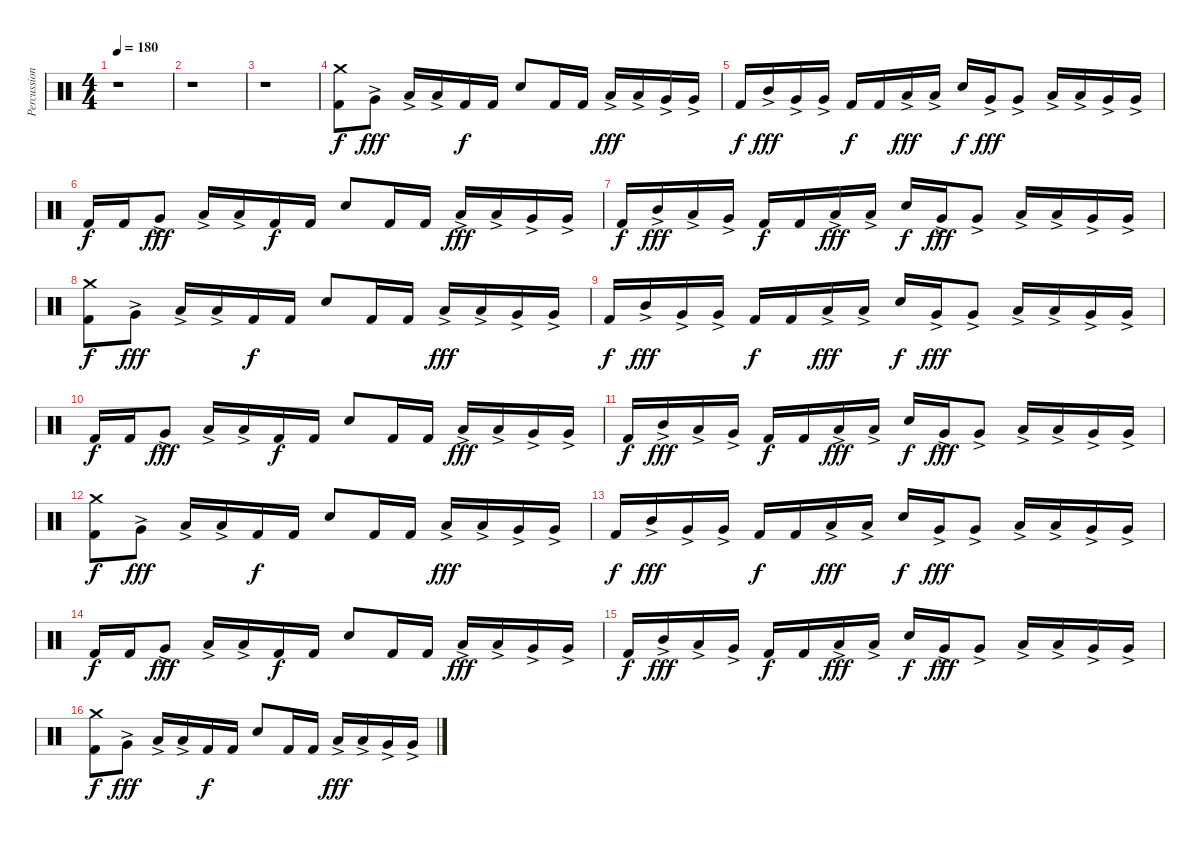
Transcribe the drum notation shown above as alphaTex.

\track ("Percussion" "Percussion") {instrument percussion}
\staff {score}
\articulation defaults
\ts (4 4)
\tempo 180
\clef neutral
\ks c
r.1{dy f} |
r.1 |
r.1 |
("Crash medium (hit)" "Kick (hit) 2").8{volume 16} "Very Low Tom (hit)"{ac}.8{dy fff} "Low Tom (hit)"{ac}.16 "Low Tom (hit)"{ac}.16 "Kick (hit) 2".16{dy f} "Kick (hit) 2".16 "Snare (hit) 2".8 "Kick (hit) 2".16 "Kick (hit) 2".16 "Low Tom (hit)"{ac}.16{dy fff} "Low Tom (hit)"{ac}.16 "Very Low Tom (hit)"{ac}.16 "Very Low Tom (hit)"{ac}.16 |
"Kick (hit) 2".16{dy f} "Mid Tom (hit)"{ac}.16{dy fff} "Very Low Tom (hit)"{ac}.16 "Very Low Tom (hit)"{ac}.16 "Kick (hit) 2".16{dy f} "Kick (hit) 2".16 "Low Floor Tom (hit)"{ac}.16{dy fff} "Low Floor Tom (hit)"{ac}.16 "Snare (hit) 2".16{dy f} "Very Low Tom (hit)"{ac}.16{dy fff} "Very Low Tom (hit)"{ac}.8 "Low Tom (hit)"{ac}.16 "Low Tom (hit)"{ac}.16 "Very Low Tom (hit)"{ac}.16 "Very Low Tom (hit)"{ac}.16 |
"Kick (hit) 2".16{dy f volume 16} "Kick (hit) 2".16 "Very Low Tom (hit)"{ac}.8{dy fff} "Low Tom (hit)"{ac}.16 "Low Tom (hit)"{ac}.16 "Kick (hit) 2".16{dy f} "Kick (hit) 2".16 "Snare (hit) 2".8 "Kick (hit) 2".16 "Kick (hit) 2".16 "Low Tom (hit)"{ac}.16{dy fff} "Low Tom (hit)"{ac}.16 "Very Low Tom (hit)"{ac}.16 "Very Low Tom (hit)"{ac}.16 |
"Kick (hit) 2".16{dy f} "Mid Tom (hit)"{ac}.16{dy fff} "Low Tom (hit)"{ac}.16 "Very Low Tom (hit)"{ac}.16 "Kick (hit) 2".16{dy f} "Kick (hit) 2".16 "Low Floor Tom (hit)"{ac}.16{dy fff} "Low Floor Tom (hit)"{ac}.16 "Snare (hit) 2".16{dy f} "Very Low Tom (hit)"{ac}.16{dy fff} "Very Low Tom (hit)"{ac}.8 "Low Tom (hit)"{ac}.16 "Low Tom (hit)"{ac}.16 "Very Low Tom (hit)"{ac}.16 "Very Low Tom (hit)"{ac}.16 |
("Crash medium (hit)" "Kick (hit) 2").8{dy f volume 16} "Very Low Tom (hit)"{ac}.8{dy fff} "Low Tom (hit)"{ac}.16 "Low Tom (hit)"{ac}.16 "Kick (hit) 2".16{dy f} "Kick (hit) 2".16 "Snare (hit) 2".8 "Kick (hit) 2".16 "Kick (hit) 2".16 "Low Tom (hit)"{ac}.16{dy fff} "Low Tom (hit)"{ac}.16 "Very Low Tom (hit)"{ac}.16 "Very Low Tom (hit)"{ac}.16 |
"Kick (hit) 2".16{dy f} "Mid Tom (hit)"{ac}.16{dy fff} "Very Low Tom (hit)"{ac}.16 "Very Low Tom (hit)"{ac}.16 "Kick (hit) 2".16{dy f} "Kick (hit) 2".16 "Low Floor Tom (hit)"{ac}.16{dy fff} "Low Floor Tom (hit)"{ac}.16 "Snare (hit) 2".16{dy f} "Very Low Tom (hit)"{ac}.16{dy fff} "Very Low Tom (hit)"{ac}.8 "Low Tom (hit)"{ac}.16 "Low Tom (hit)"{ac}.16 "Very Low Tom (hit)"{ac}.16 "Very Low Tom (hit)"{ac}.16 |
"Kick (hit) 2".16{dy f volume 16} "Kick (hit) 2".16 "Very Low Tom (hit)"{ac}.8{dy fff} "Low Tom (hit)"{ac}.16 "Low Tom (hit)"{ac}.16 "Kick (hit) 2".16{dy f} "Kick (hit) 2".16 "Snare (hit) 2".8 "Kick (hit) 2".16 "Kick (hit) 2".16 "Low Tom (hit)"{ac}.16{dy fff} "Low Tom (hit)"{ac}.16 "Very Low Tom (hit)"{ac}.16 "Very Low Tom (hit)"{ac}.16 |
"Kick (hit) 2".16{dy f} "Mid Tom (hit)"{ac}.16{dy fff} "Low Tom (hit)"{ac}.16 "Very Low Tom (hit)"{ac}.16 "Kick (hit) 2".16{dy f} "Kick (hit) 2".16 "Low Floor Tom (hit)"{ac}.16{dy fff} "Low Floor Tom (hit)"{ac}.16 "Snare (hit) 2".16{dy f} "Very Low Tom (hit)"{ac}.16{dy fff} "Very Low Tom (hit)"{ac}.8 "Low Tom (hit)"{ac}.16 "Low Tom (hit)"{ac}.16 "Very Low Tom (hit)"{ac}.16 "Very Low Tom (hit)"{ac}.16 |
("Crash medium (hit)" "Kick (hit) 2").8{dy f volume 16} "Very Low Tom (hit)"{ac}.8{dy fff} "Low Tom (hit)"{ac}.16 "Low Tom (hit)"{ac}.16 "Kick (hit) 2".16{dy f} "Kick (hit) 2".16 "Snare (hit) 2".8 "Kick (hit) 2".16 "Kick (hit) 2".16 "Low Tom (hit)"{ac}.16{dy fff} "Low Tom (hit)"{ac}.16 "Very Low Tom (hit)"{ac}.16 "Very Low Tom (hit)"{ac}.16 |
"Kick (hit) 2".16{dy f} "Mid Tom (hit)"{ac}.16{dy fff} "Very Low Tom (hit)"{ac}.16 "Very Low Tom (hit)"{ac}.16 "Kick (hit) 2".16{dy f} "Kick (hit) 2".16 "Low Floor Tom (hit)"{ac}.16{dy fff} "Low Floor Tom (hit)"{ac}.16 "Snare (hit) 2".16{dy f} "Very Low Tom (hit)"{ac}.16{dy fff} "Very Low Tom (hit)"{ac}.8 "Low Tom (hit)"{ac}.16 "Low Tom (hit)"{ac}.16 "Very Low Tom (hit)"{ac}.16 "Very Low Tom (hit)"{ac}.16 |
"Kick (hit) 2".16{dy f volume 16} "Kick (hit) 2".16 "Very Low Tom (hit)"{ac}.8{dy fff} "Low Tom (hit)"{ac}.16 "Low Tom (hit)"{ac}.16 "Kick (hit) 2".16{dy f} "Kick (hit) 2".16 "Snare (hit) 2".8 "Kick (hit) 2".16 "Kick (hit) 2".16 "Low Tom (hit)"{ac}.16{dy fff} "Low Tom (hit)"{ac}.16 "Very Low Tom (hit)"{ac}.16 "Very Low Tom (hit)"{ac}.16 |
"Kick (hit) 2".16{dy f} "Mid Tom (hit)"{ac}.16{dy fff} "Low Tom (hit)"{ac}.16 "Very Low Tom (hit)"{ac}.16 "Kick (hit) 2".16{dy f} "Kick (hit) 2".16 "Low Floor Tom (hit)"{ac}.16{dy fff} "Low Floor Tom (hit)"{ac}.16 "Snare (hit) 2".16{dy f} "Very Low Tom (hit)"{ac}.16{dy fff} "Very Low Tom (hit)"{ac}.8 "Low Tom (hit)"{ac}.16 "Low Tom (hit)"{ac}.16 "Very Low Tom (hit)"{ac}.16 "Very Low Tom (hit)"{ac}.16 |
("Crash medium (hit)" "Kick (hit) 2").8{dy f volume 16} "Very Low Tom (hit)"{ac}.8{dy fff} "Low Tom (hit)"{ac}.16 "Low Tom (hit)"{ac}.16 "Kick (hit) 2".16{dy f} "Kick (hit) 2".16 "Snare (hit) 2".8 "Kick (hit) 2".16 "Kick (hit) 2".16 "Low Tom (hit)"{ac}.16{dy fff} "Low Tom (hit)"{ac}.16 "Very Low Tom (hit)"{ac}.16 "Very Low Tom (hit)"{ac}.16
